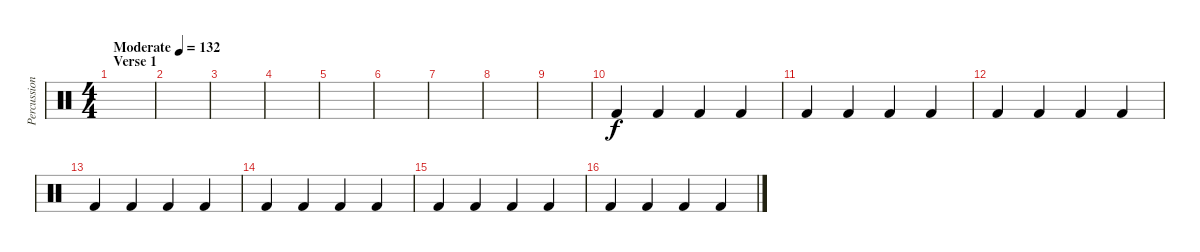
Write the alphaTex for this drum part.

\track ("Percussion" "Percussion") {instrument percussion}
\staff {score}
\articulation defaults
\ts (4 4)
\section ("" "Verse 1")
\tempo (132 "Moderate")
\clef neutral
\ks c
|
|
|
|
|
|
|
|
|
"Kick (hit) 2".4 "Kick (hit) 2".4 "Kick (hit) 2".4 "Kick (hit) 2".4 |
"Kick (hit) 2".4 "Kick (hit) 2".4 "Kick (hit) 2".4 "Kick (hit) 2".4 |
"Kick (hit) 2".4 "Kick (hit) 2".4 "Kick (hit) 2".4 "Kick (hit) 2".4 |
"Kick (hit) 2".4 "Kick (hit) 2".4 "Kick (hit) 2".4 "Kick (hit) 2".4 |
"Kick (hit) 2".4 "Kick (hit) 2".4 "Kick (hit) 2".4 "Kick (hit) 2".4 |
"Kick (hit) 2".4 "Kick (hit) 2".4 "Kick (hit) 2".4 "Kick (hit) 2".4 |
"Kick (hit) 2".4 "Kick (hit) 2".4 "Kick (hit) 2".4 "Kick (hit) 2".4
